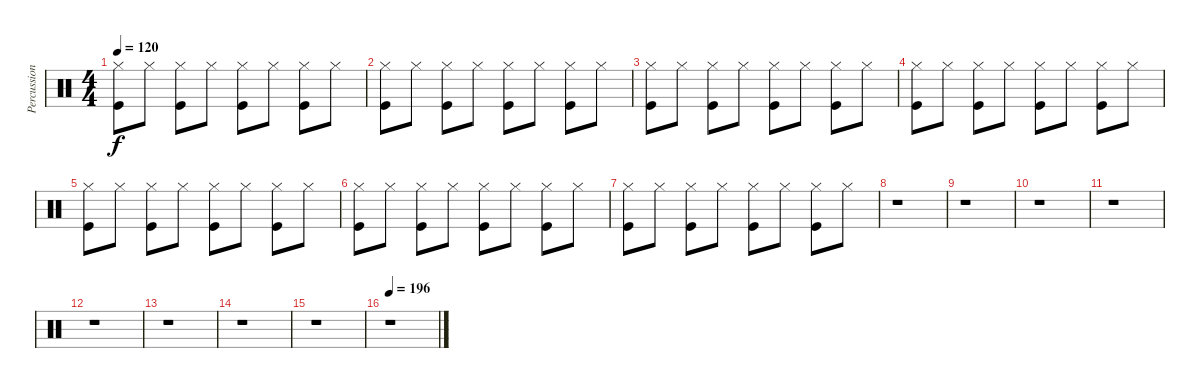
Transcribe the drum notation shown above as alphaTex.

\track ("Percussion" "Percussion") {instrument percussion}
\staff {score}
\articulation defaults
\ts (4 4)
\tempo 120
\clef neutral
\ks c
("Kick (hit)" "Hi-Hat (closed)").8{dy f} "Hi-Hat (closed)".8 ("Kick (hit)" "Hi-Hat (closed)").8 "Hi-Hat (closed)".8 ("Kick (hit)" "Hi-Hat (closed)").8 "Hi-Hat (closed)".8 ("Kick (hit)" "Hi-Hat (closed)").8 "Hi-Hat (closed)".8 |
("Kick (hit)" "Hi-Hat (closed)").8 "Hi-Hat (closed)".8 ("Kick (hit)" "Hi-Hat (closed)").8 "Hi-Hat (closed)".8 ("Kick (hit)" "Hi-Hat (closed)").8 "Hi-Hat (closed)".8 ("Kick (hit)" "Hi-Hat (closed)").8 "Hi-Hat (closed)".8 |
("Kick (hit)" "Hi-Hat (closed)").8 "Hi-Hat (closed)".8 ("Kick (hit)" "Hi-Hat (closed)").8 "Hi-Hat (closed)".8 ("Kick (hit)" "Hi-Hat (closed)").8 "Hi-Hat (closed)".8 ("Kick (hit)" "Hi-Hat (closed)").8 "Hi-Hat (closed)".8 |
("Kick (hit)" "Hi-Hat (closed)").8 "Hi-Hat (closed)".8 ("Kick (hit)" "Hi-Hat (closed)").8 "Hi-Hat (closed)".8 ("Kick (hit)" "Hi-Hat (closed)").8 "Hi-Hat (closed)".8 ("Kick (hit)" "Hi-Hat (closed)").8 "Hi-Hat (closed)".8 |
("Kick (hit)" "Hi-Hat (closed)").8 "Hi-Hat (closed)".8 ("Kick (hit)" "Hi-Hat (closed)").8 "Hi-Hat (closed)".8 ("Kick (hit)" "Hi-Hat (closed)").8 "Hi-Hat (closed)".8 ("Kick (hit)" "Hi-Hat (closed)").8 "Hi-Hat (closed)".8 |
("Kick (hit)" "Hi-Hat (closed)").8 "Hi-Hat (closed)".8 ("Kick (hit)" "Hi-Hat (closed)").8 "Hi-Hat (closed)".8 ("Kick (hit)" "Hi-Hat (closed)").8 "Hi-Hat (closed)".8 ("Kick (hit)" "Hi-Hat (closed)").8 "Hi-Hat (closed)".8 |
("Kick (hit)" "Hi-Hat (closed)").8 "Hi-Hat (closed)".8 ("Kick (hit)" "Hi-Hat (closed)").8 "Hi-Hat (closed)".8 ("Kick (hit)" "Hi-Hat (closed)").8 "Hi-Hat (closed)".8 ("Kick (hit)" "Hi-Hat (closed)").8 "Hi-Hat (closed)".8 |
r.1 |
r.1 |
r.1 |
r.1 |
r.1 |
r.1 |
r.1 |
r.1 |
\tempo 196
r.1
